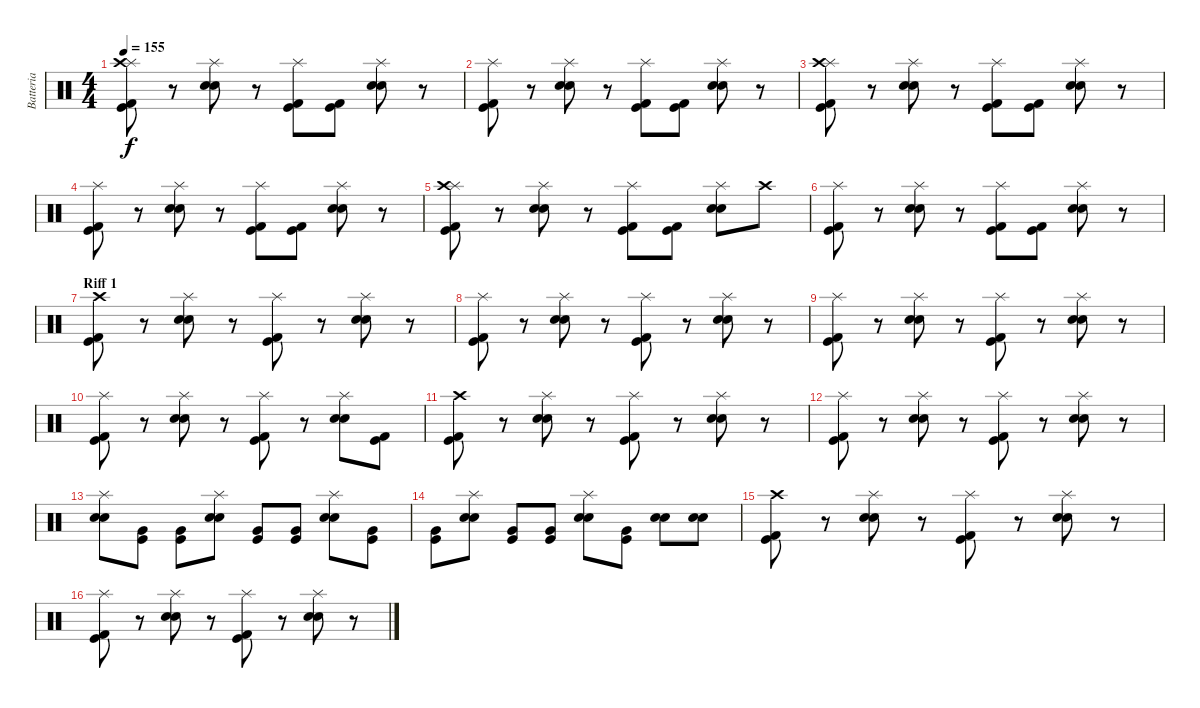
\track ("Batteria" "Batteria") {instrument percussion}
\staff {score}
\articulation defaults
\ts (4 4)
\tempo 155
\clef neutral
\ks c
("Kick (hit)" "Kick (hit) 2" "Splash (hit)" "Crash high (hit)").8{dy f} r.8 ("Electric Snare (hit)" "Snare (hit) 2" "Splash (hit)").8 r.8 ("Kick (hit)" "Kick (hit) 2" "Splash (hit)").8 ("Kick (hit)" "Kick (hit) 2").8 ("Electric Snare (hit)" "Snare (hit) 2" "Splash (hit)").8 r.8 |
("Kick (hit)" "Kick (hit) 2" "Splash (hit)").8 r.8 ("Electric Snare (hit)" "Snare (hit) 2" "Splash (hit)").8 r.8 ("Kick (hit)" "Kick (hit) 2" "Splash (hit)").8 ("Kick (hit)" "Kick (hit) 2").8 ("Electric Snare (hit)" "Snare (hit) 2" "Splash (hit)").8 r.8 |
("Kick (hit)" "Kick (hit) 2" "Splash (hit)" "Crash high (hit)").8 r.8 ("Electric Snare (hit)" "Snare (hit) 2" "Splash (hit)").8 r.8 ("Kick (hit)" "Kick (hit) 2" "Splash (hit)").8 ("Kick (hit)" "Kick (hit) 2").8 ("Electric Snare (hit)" "Snare (hit) 2" "Splash (hit)").8 r.8 |
("Kick (hit)" "Kick (hit) 2" "Splash (hit)").8 r.8 ("Electric Snare (hit)" "Snare (hit) 2" "Splash (hit)").8 r.8 ("Kick (hit)" "Kick (hit) 2" "Splash (hit)").8 ("Kick (hit)" "Kick (hit) 2").8 ("Electric Snare (hit)" "Snare (hit) 2" "Splash (hit)").8 r.8 |
("Kick (hit)" "Kick (hit) 2" "Splash (hit)" "Crash high (hit)").8 r.8 ("Electric Snare (hit)" "Snare (hit) 2" "Splash (hit)").8 r.8 ("Kick (hit)" "Kick (hit) 2" "Splash (hit)").8 ("Kick (hit)" "Kick (hit) 2").8 ("Electric Snare (hit)" "Snare (hit) 2" "Splash (hit)").8 "Crash high (hit)".8 |
("Kick (hit)" "Kick (hit) 2" "Splash (hit)").8 r.8 ("Electric Snare (hit)" "Snare (hit) 2" "Splash (hit)").8 r.8 ("Kick (hit)" "Kick (hit) 2" "Splash (hit)").8 ("Kick (hit)" "Kick (hit) 2").8 ("Electric Snare (hit)" "Snare (hit) 2" "Splash (hit)").8 r.8 |
\section ("" "Riff 1")
("Kick (hit)" "Kick (hit) 2" "Crash high (hit)").8 r.8 ("Electric Snare (hit)" "Snare (hit) 2" "Splash (hit)").8 r.8 ("Kick (hit)" "Kick (hit) 2" "Splash (hit)").8 r.8 ("Electric Snare (hit)" "Snare (hit) 2" "Splash (hit)").8 r.8 |
("Kick (hit)" "Kick (hit) 2" "Splash (hit)").8 r.8 ("Electric Snare (hit)" "Snare (hit) 2" "Splash (hit)").8 r.8 ("Kick (hit)" "Kick (hit) 2" "Splash (hit)").8 r.8 ("Electric Snare (hit)" "Snare (hit) 2" "Splash (hit)").8 r.8 |
("Kick (hit)" "Kick (hit) 2" "Splash (hit)").8 r.8 ("Electric Snare (hit)" "Snare (hit) 2" "Splash (hit)").8 r.8 ("Kick (hit)" "Kick (hit) 2" "Splash (hit)").8 r.8 ("Electric Snare (hit)" "Snare (hit) 2" "Splash (hit)").8 r.8 |
("Kick (hit)" "Kick (hit) 2" "Splash (hit)").8 r.8 ("Electric Snare (hit)" "Snare (hit) 2" "Splash (hit)").8 r.8 ("Kick (hit)" "Kick (hit) 2" "Splash (hit)").8 r.8 ("Electric Snare (hit)" "Snare (hit) 2" "Splash (hit)").8 ("Kick (hit)" "Kick (hit) 2").8 |
("Kick (hit)" "Kick (hit) 2" "Crash high (hit)").8 r.8 ("Electric Snare (hit)" "Snare (hit) 2" "Splash (hit)").8 r.8 ("Kick (hit)" "Kick (hit) 2" "Splash (hit)").8 r.8 ("Electric Snare (hit)" "Snare (hit) 2" "Splash (hit)").8 r.8 |
("Kick (hit)" "Kick (hit) 2" "Splash (hit)").8 r.8 ("Electric Snare (hit)" "Snare (hit) 2" "Splash (hit)").8 r.8 ("Kick (hit)" "Kick (hit) 2" "Splash (hit)").8 r.8 ("Electric Snare (hit)" "Snare (hit) 2" "Splash (hit)").8 r.8 |
("Electric Snare (hit)" "Snare (hit) 2" "Splash (hit)").8 ("Kick (hit)" "Very Low Tom (hit)").8 ("Kick (hit)" "Very Low Tom (hit)").8 ("Electric Snare (hit)" "Snare (hit) 2" "Splash (hit)").8 ("Kick (hit)" "Very Low Tom (hit)").8 ("Kick (hit)" "Very Low Tom (hit)").8 ("Electric Snare (hit)" "Snare (hit) 2" "Splash (hit)").8 ("Kick (hit)" "Very Low Tom (hit)").8 |
("Kick (hit)" "Very Low Tom (hit)").8 ("Electric Snare (hit)" "Snare (hit) 2" "Splash (hit)").8 ("Kick (hit)" "Very Low Tom (hit)").8 ("Kick (hit)" "Very Low Tom (hit)").8 ("Electric Snare (hit)" "Snare (hit) 2" "Splash (hit)").8 ("Kick (hit)" "Very Low Tom (hit)").8 ("Electric Snare (hit)" "Snare (hit) 2").8 ("Electric Snare (hit)" "Snare (hit) 2").8 |
("Kick (hit)" "Kick (hit) 2" "Crash high (hit)").8 r.8 ("Electric Snare (hit)" "Snare (hit) 2" "Splash (hit)").8 r.8 ("Kick (hit)" "Kick (hit) 2" "Splash (hit)").8 r.8 ("Electric Snare (hit)" "Snare (hit) 2" "Splash (hit)").8 r.8 |
("Kick (hit)" "Kick (hit) 2" "Splash (hit)").8 r.8 ("Electric Snare (hit)" "Snare (hit) 2" "Splash (hit)").8 r.8 ("Kick (hit)" "Kick (hit) 2" "Splash (hit)").8 r.8 ("Electric Snare (hit)" "Snare (hit) 2" "Splash (hit)").8 r.8
